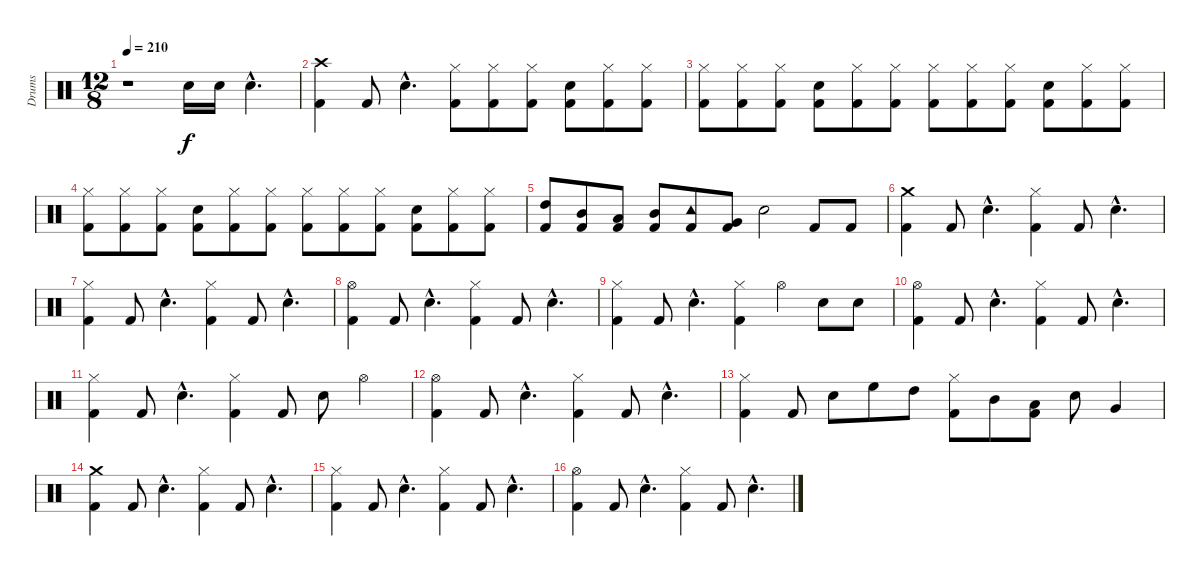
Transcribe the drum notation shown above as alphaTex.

\track ("Drums" "Drums") {instrument percussion}
\staff {score}
\articulation defaults
\ts (12 8)
\tempo 210
\clef neutral
\ks c
r.1{dy f} "Snare (hit) 2".16 "Snare (hit) 2".16 "Snare (hit) 2"{hac}.4{d} |
("Kick (hit) 2" "Crash high (hit)").4 "Kick (hit) 2".8 "Snare (hit) 2"{hac}.4{d} ("Kick (hit) 2" "Hi-Hat (closed)").8 ("Kick (hit) 2" "Hi-Hat (closed)").8 ("Kick (hit) 2" "Hi-Hat (closed)").8 ("Kick (hit) 2" "Snare (hit) 2").8 ("Kick (hit) 2" "Hi-Hat (closed)").8 ("Kick (hit) 2" "Hi-Hat (closed)").8 |
("Kick (hit) 2" "Hi-Hat (closed)").8 ("Kick (hit) 2" "Hi-Hat (closed)").8 ("Kick (hit) 2" "Hi-Hat (closed)").8 ("Kick (hit) 2" "Snare (hit) 2").8 ("Kick (hit) 2" "Hi-Hat (closed)").8 ("Kick (hit) 2" "Hi-Hat (closed)").8 ("Kick (hit) 2" "Hi-Hat (closed)").8 ("Kick (hit) 2" "Hi-Hat (closed)").8 ("Kick (hit) 2" "Hi-Hat (closed)").8 ("Kick (hit) 2" "Snare (hit) 2").8 ("Kick (hit) 2" "Hi-Hat (closed)").8 ("Kick (hit) 2" "Hi-Hat (closed)").8 |
("Kick (hit) 2" "Hi-Hat (closed)").8 ("Kick (hit) 2" "Hi-Hat (closed)").8 ("Kick (hit) 2" "Hi-Hat (closed)").8 ("Kick (hit) 2" "Snare (hit) 2").8 ("Kick (hit) 2" "Hi-Hat (closed)").8 ("Kick (hit) 2" "Hi-Hat (closed)").8 ("Kick (hit) 2" "Hi-Hat (closed)").8 ("Kick (hit) 2" "Hi-Hat (closed)").8 ("Kick (hit) 2" "Hi-Hat (closed)").8 ("Kick (hit) 2" "Snare (hit) 2").8 ("Kick (hit) 2" "Hi-Hat (closed)").8 ("Kick (hit) 2" "Hi-Hat (closed)").8 |
("Kick (hit) 2" "High Tom (hit)").8 ("Kick (hit) 2" "Mid Tom (hit)").8 ("Kick (hit) 2" "Low Tom (hit)").8 ("Kick (hit) 2" "Mid Tom (hit)").8 ("Kick (hit) 2" "Tambourine (hit)").8 ("Kick (hit) 2" "Very Low Tom (hit)").8 "Snare (hit) 2".2 "Kick (hit) 2".8 "Kick (hit) 2".8 |
("Kick (hit) 2" "Crash medium (hit)").4 "Kick (hit) 2".8 "Snare (hit) 2"{hac}.4{d} ("Kick (hit) 2" "Hi-Hat (closed)").4 "Kick (hit) 2".8 "Snare (hit) 2"{hac}.4{d} |
("Kick (hit) 2" "Hi-Hat (closed)").4 "Kick (hit) 2".8 "Snare (hit) 2"{hac}.4{d} ("Kick (hit) 2" "Hi-Hat (closed)").4 "Kick (hit) 2".8 "Snare (hit) 2"{hac}.4{d} |
("Kick (hit) 2" "Hi-Hat (open)").4 "Kick (hit) 2".8 "Snare (hit) 2"{hac}.4{d} ("Kick (hit) 2" "Hi-Hat (closed)").4 "Kick (hit) 2".8 "Snare (hit) 2"{hac}.4{d} |
("Kick (hit) 2" "Hi-Hat (closed)").4 "Kick (hit) 2".8 "Snare (hit) 2"{hac}.4{d} ("Kick (hit) 2" "Hi-Hat (closed)").4 "Hi-Hat (open)".4 "Snare (hit) 2".8 "Snare (hit) 2".8 |
("Kick (hit) 2" "Hi-Hat (open)").4 "Kick (hit) 2".8 "Snare (hit) 2"{hac}.4{d} ("Kick (hit) 2" "Hi-Hat (closed)").4 "Kick (hit) 2".8 "Snare (hit) 2"{hac}.4{d} |
("Kick (hit) 2" "Hi-Hat (closed)").4 "Kick (hit) 2".8 "Snare (hit) 2"{hac}.4{d} ("Kick (hit) 2" "Hi-Hat (closed)").4 "Kick (hit) 2".8 "Snare (hit) 2".8 "Hi-Hat (open)".4 |
("Kick (hit) 2" "Hi-Hat (open)").4 "Kick (hit) 2".8 "Snare (hit) 2"{hac}.4{d} ("Kick (hit) 2" "Hi-Hat (closed)").4 "Kick (hit) 2".8 "Snare (hit) 2"{hac}.4{d} |
("Kick (hit) 2" "Hi-Hat (closed)").4 "Kick (hit) 2".8 "Snare (hit) 2".8 "High Floor Tom (hit)".8 "High Tom (hit)".8 ("Kick (hit) 2" "Hi-Hat (closed)").8 "Mid Tom (hit)".8 ("Kick (hit) 2" "Low Tom (hit)").8 "Snare (hit) 2".8 "Very Low Tom (hit)".4 |
("Kick (hit) 2" "Crash medium (hit)").4 "Kick (hit) 2".8 "Snare (hit) 2"{hac}.4{d} ("Kick (hit) 2" "Hi-Hat (closed)").4 "Kick (hit) 2".8 "Snare (hit) 2"{hac}.4{d} |
("Kick (hit) 2" "Hi-Hat (closed)").4 "Kick (hit) 2".8 "Snare (hit) 2"{hac}.4{d} ("Kick (hit) 2" "Hi-Hat (closed)").4 "Kick (hit) 2".8 "Snare (hit) 2"{hac}.4{d} |
("Kick (hit) 2" "Hi-Hat (open)").4 "Kick (hit) 2".8 "Snare (hit) 2"{hac}.4{d} ("Kick (hit) 2" "Hi-Hat (closed)").4 "Kick (hit) 2".8 "Snare (hit) 2"{hac}.4{d}
